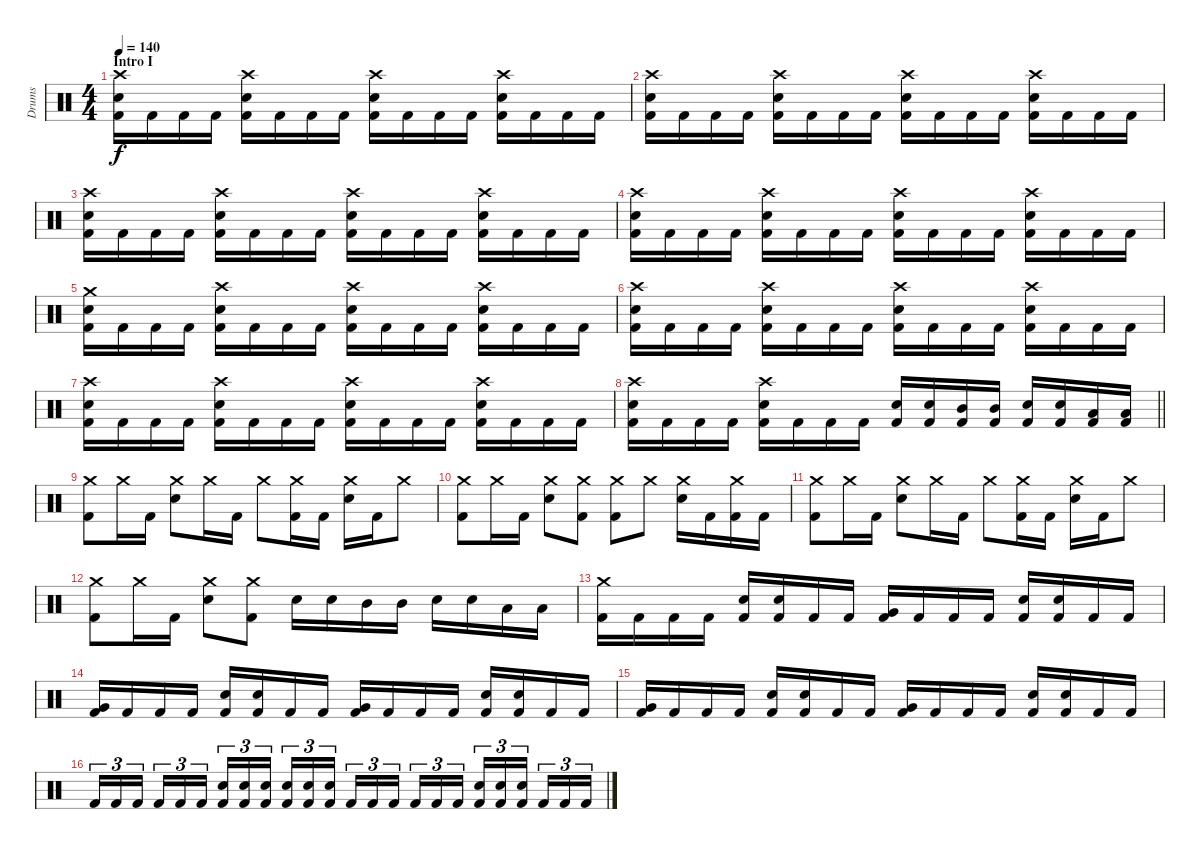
\track ("Drums" "Drums") {instrument percussion}
\staff {score}
\articulation defaults
\ts (4 4)
\section ("" "Intro I")
\tempo 140
\clef neutral
\ks c
("Crash high (hit)" "Electric Snare (hit)" "Kick (hit) 2").16{dy f} "Kick (hit) 2".16 "Kick (hit) 2".16 "Kick (hit) 2".16 ("Crash high (hit)" "Electric Snare (hit)" "Kick (hit) 2").16 "Kick (hit) 2".16 "Kick (hit) 2".16 "Kick (hit) 2".16 ("Crash high (hit)" "Electric Snare (hit)" "Kick (hit) 2").16 "Kick (hit) 2".16 "Kick (hit) 2".16 "Kick (hit) 2".16 ("Crash high (hit)" "Electric Snare (hit)" "Kick (hit) 2").16 "Kick (hit) 2".16 "Kick (hit) 2".16 "Kick (hit) 2".16 |
("Crash high (hit)" "Electric Snare (hit)" "Kick (hit) 2").16 "Kick (hit) 2".16 "Kick (hit) 2".16 "Kick (hit) 2".16 ("Crash high (hit)" "Electric Snare (hit)" "Kick (hit) 2").16 "Kick (hit) 2".16 "Kick (hit) 2".16 "Kick (hit) 2".16 ("Crash high (hit)" "Electric Snare (hit)" "Kick (hit) 2").16 "Kick (hit) 2".16 "Kick (hit) 2".16 "Kick (hit) 2".16 ("Crash high (hit)" "Electric Snare (hit)" "Kick (hit) 2").16 "Kick (hit) 2".16 "Kick (hit) 2".16 "Kick (hit) 2".16 |
("Crash high (hit)" "Electric Snare (hit)" "Kick (hit) 2").16 "Kick (hit) 2".16 "Kick (hit) 2".16 "Kick (hit) 2".16 ("Crash high (hit)" "Electric Snare (hit)" "Kick (hit) 2").16 "Kick (hit) 2".16 "Kick (hit) 2".16 "Kick (hit) 2".16 ("Crash high (hit)" "Electric Snare (hit)" "Kick (hit) 2").16 "Kick (hit) 2".16 "Kick (hit) 2".16 "Kick (hit) 2".16 ("Crash high (hit)" "Electric Snare (hit)" "Kick (hit) 2").16 "Kick (hit) 2".16 "Kick (hit) 2".16 "Kick (hit) 2".16 |
("Crash high (hit)" "Electric Snare (hit)" "Kick (hit) 2").16 "Kick (hit) 2".16 "Kick (hit) 2".16 "Kick (hit) 2".16 ("Crash high (hit)" "Electric Snare (hit)" "Kick (hit) 2").16 "Kick (hit) 2".16 "Kick (hit) 2".16 "Kick (hit) 2".16 ("Crash high (hit)" "Electric Snare (hit)" "Kick (hit) 2").16 "Kick (hit) 2".16 "Kick (hit) 2".16 "Kick (hit) 2".16 ("Crash high (hit)" "Electric Snare (hit)" "Kick (hit) 2").16 "Kick (hit) 2".16 "Kick (hit) 2".16 "Kick (hit) 2".16 |
("Crash medium (hit)" "Electric Snare (hit)" "Kick (hit) 2").16 "Kick (hit) 2".16 "Kick (hit) 2".16 "Kick (hit) 2".16 ("Crash high (hit)" "Electric Snare (hit)" "Kick (hit) 2").16 "Kick (hit) 2".16 "Kick (hit) 2".16 "Kick (hit) 2".16 ("Crash high (hit)" "Electric Snare (hit)" "Kick (hit) 2").16 "Kick (hit) 2".16 "Kick (hit) 2".16 "Kick (hit) 2".16 ("Crash high (hit)" "Electric Snare (hit)" "Kick (hit) 2").16 "Kick (hit) 2".16 "Kick (hit) 2".16 "Kick (hit) 2".16 |
("Crash high (hit)" "Electric Snare (hit)" "Kick (hit) 2").16 "Kick (hit) 2".16 "Kick (hit) 2".16 "Kick (hit) 2".16 ("Crash high (hit)" "Electric Snare (hit)" "Kick (hit) 2").16 "Kick (hit) 2".16 "Kick (hit) 2".16 "Kick (hit) 2".16 ("Crash high (hit)" "Electric Snare (hit)" "Kick (hit) 2").16 "Kick (hit) 2".16 "Kick (hit) 2".16 "Kick (hit) 2".16 ("Crash high (hit)" "Electric Snare (hit)" "Kick (hit) 2").16 "Kick (hit) 2".16 "Kick (hit) 2".16 "Kick (hit) 2".16 |
("Crash high (hit)" "Electric Snare (hit)" "Kick (hit) 2").16 "Kick (hit) 2".16 "Kick (hit) 2".16 "Kick (hit) 2".16 ("Crash high (hit)" "Electric Snare (hit)" "Kick (hit) 2").16 "Kick (hit) 2".16 "Kick (hit) 2".16 "Kick (hit) 2".16 ("Crash high (hit)" "Electric Snare (hit)" "Kick (hit) 2").16 "Kick (hit) 2".16 "Kick (hit) 2".16 "Kick (hit) 2".16 ("Crash high (hit)" "Electric Snare (hit)" "Kick (hit) 2").16 "Kick (hit) 2".16 "Kick (hit) 2".16 "Kick (hit) 2".16 |
\barLineRight lightlight
("Crash high (hit)" "Electric Snare (hit)" "Kick (hit) 2").16 "Kick (hit) 2".16 "Kick (hit) 2".16 "Kick (hit) 2".16 ("Crash high (hit)" "Electric Snare (hit)" "Kick (hit) 2").16 "Kick (hit) 2".16 "Kick (hit) 2".16 "Kick (hit) 2".16 ("Electric Snare (hit)" "Kick (hit) 2").16 ("Electric Snare (hit)" "Kick (hit) 2").16 ("Mid Tom (hit)" "Kick (hit) 2").16 ("Mid Tom (hit)" "Kick (hit) 2").16 ("Electric Snare (hit)" "Kick (hit) 2").16 ("Electric Snare (hit)" "Kick (hit) 2").16 ("Low Tom (hit)" "Kick (hit) 2").16 ("Low Tom (hit)" "Kick (hit) 2").16 |
\section ("" "")
("Crash medium (hit)" "Kick (hit) 2").8 "Crash medium (hit)".16 "Kick (hit) 2".16 ("Crash medium (hit)" "Electric Snare (hit)").8 "Crash medium (hit)".16 "Kick (hit) 2".16 "Crash medium (hit)".8 ("Crash medium (hit)" "Kick (hit) 2").16 "Kick (hit) 2".16 ("Crash medium (hit)" "Electric Snare (hit)").16 "Kick (hit) 2".16 "Crash medium (hit)".8 |
("Crash medium (hit)" "Kick (hit) 2").8 "Crash medium (hit)".16 "Kick (hit) 2".16 ("Crash medium (hit)" "Electric Snare (hit)").8 ("Crash medium (hit)" "Kick (hit) 2").8 ("Crash medium (hit)" "Kick (hit) 2").8 "Crash medium (hit)".8 ("Crash medium (hit)" "Electric Snare (hit)").16 "Kick (hit) 2".16 ("Crash medium (hit)" "Kick (hit) 2").16 "Kick (hit) 2".16 |
("Crash medium (hit)" "Kick (hit) 2").8 "Crash medium (hit)".16 "Kick (hit) 2".16 ("Crash medium (hit)" "Electric Snare (hit)").8 "Crash medium (hit)".16 "Kick (hit) 2".16 "Crash medium (hit)".8 ("Crash medium (hit)" "Kick (hit) 2").16 "Kick (hit) 2".16 ("Crash medium (hit)" "Electric Snare (hit)").16 "Kick (hit) 2".16 "Crash medium (hit)".8 |
("Crash medium (hit)" "Kick (hit) 2").8 "Crash medium (hit)".16 "Kick (hit) 2".16 ("Crash medium (hit)" "Electric Snare (hit)").8 ("Crash medium (hit)" "Kick (hit) 2").8 "Electric Snare (hit)".16 "Electric Snare (hit)".16 "Mid Tom (hit)".16 "Mid Tom (hit)".16 "Electric Snare (hit)".16 "Electric Snare (hit)".16 "Low Tom (hit)".16 "Low Tom (hit)".16 |
("Crash medium (hit)" "Kick (hit) 2").16 "Kick (hit) 2".16 "Kick (hit) 2".16 "Kick (hit) 2".16 ("Electric Snare (hit)" "Kick (hit) 2").16 ("Electric Snare (hit)" "Kick (hit) 2").16 "Kick (hit) 2".16 "Kick (hit) 2".16 ("Very Low Tom (hit)" "Kick (hit) 2").16 "Kick (hit) 2".16 "Kick (hit) 2".16 "Kick (hit) 2".16 ("Electric Snare (hit)" "Kick (hit) 2").16 ("Electric Snare (hit)" "Kick (hit) 2").16 "Kick (hit) 2".16 "Kick (hit) 2".16 |
("Very Low Tom (hit)" "Kick (hit) 2").16 "Kick (hit) 2".16 "Kick (hit) 2".16 "Kick (hit) 2".16 ("Electric Snare (hit)" "Kick (hit) 2").16 ("Electric Snare (hit)" "Kick (hit) 2").16 "Kick (hit) 2".16 "Kick (hit) 2".16 ("Very Low Tom (hit)" "Kick (hit) 2").16 "Kick (hit) 2".16 "Kick (hit) 2".16 "Kick (hit) 2".16 ("Electric Snare (hit)" "Kick (hit) 2").16 ("Electric Snare (hit)" "Kick (hit) 2").16 "Kick (hit) 2".16 "Kick (hit) 2".16 |
("Very Low Tom (hit)" "Kick (hit) 2").16 "Kick (hit) 2".16 "Kick (hit) 2".16 "Kick (hit) 2".16 ("Electric Snare (hit)" "Kick (hit) 2").16 ("Electric Snare (hit)" "Kick (hit) 2").16 "Kick (hit) 2".16 "Kick (hit) 2".16 ("Very Low Tom (hit)" "Kick (hit) 2").16 "Kick (hit) 2".16 "Kick (hit) 2".16 "Kick (hit) 2".16 ("Electric Snare (hit)" "Kick (hit) 2").16 ("Electric Snare (hit)" "Kick (hit) 2").16 "Kick (hit) 2".16 "Kick (hit) 2".16 |
"Kick (hit) 2".16{tu (3 2)} "Kick (hit) 2".16{tu (3 2)} "Kick (hit) 2".16{tu (3 2)} "Kick (hit) 2".16{tu (3 2)} "Kick (hit) 2".16{tu (3 2)} "Kick (hit) 2".16{tu (3 2)} ("Electric Snare (hit)" "Kick (hit) 2").16{tu (3 2)} ("Electric Snare (hit)" "Kick (hit) 2").16{tu (3 2)} ("Electric Snare (hit)" "Kick (hit) 2").16{tu (3 2)} ("Electric Snare (hit)" "Kick (hit) 2").16{tu (3 2)} ("Electric Snare (hit)" "Kick (hit) 2").16{tu (3 2)} ("Electric Snare (hit)" "Kick (hit) 2").16{tu (3 2)} "Kick (hit) 2".16{tu (3 2)} "Kick (hit) 2".16{tu (3 2)} "Kick (hit) 2".16{tu (3 2)} "Kick (hit) 2".16{tu (3 2)} "Kick (hit) 2".16{tu (3 2)} "Kick (hit) 2".16{tu (3 2)} ("Electric Snare (hit)" "Kick (hit) 2").16{tu (3 2)} ("Electric Snare (hit)" "Kick (hit) 2").16{tu (3 2)} ("Electric Snare (hit)" "Kick (hit) 2").16{tu (3 2)} "Kick (hit) 2".16{tu (3 2)} "Kick (hit) 2".16{tu (3 2)} "Kick (hit) 2".16{tu (3 2)}
